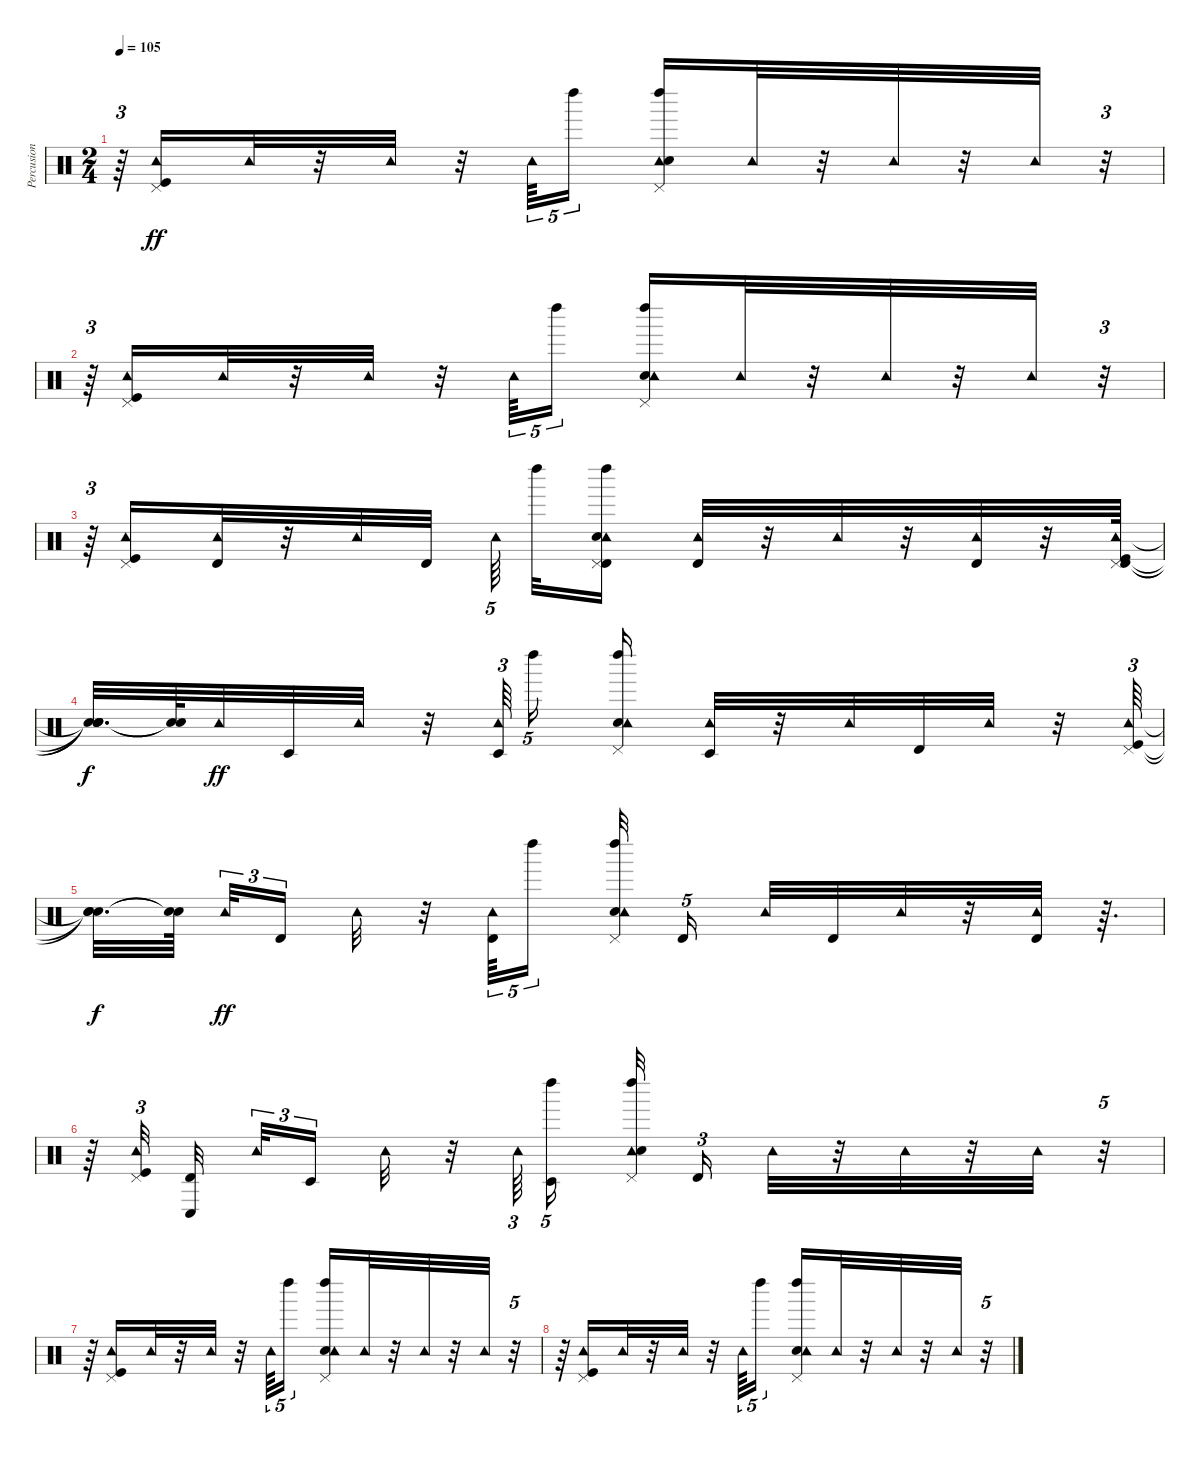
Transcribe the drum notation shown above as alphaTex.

\track ("Percusion" "Percusion") {instrument percussion}
\staff {score}
\articulation defaults
\ts (2 4)
\tempo 105
\clef neutral
\ks c
r.64{tu (3 2) dy ff} ("Pedal Hi-Hat (hit)" "Kick (hit)" "Tambourine (hit)").16 "Tambourine (hit)".32 r.32 "Tambourine (hit)".32 r.32 "Tambourine (hit)".64{tu (5 4)} "Left Maraca (hit)".16{tu (5 4)} ("Tambourine (hit)" "Electric Snare (hit)" "Pedal Hi-Hat (hit)" "Left Maraca (hit)").16 "Tambourine (hit)".32 r.32 "Tambourine (hit)".32 r.32 "Tambourine (hit)".32 r.32{tu (3 2)} |
r.64{tu (3 2)} ("Kick (hit)" "Tambourine (hit)" "Pedal Hi-Hat (hit)").16 "Tambourine (hit)".32 r.32 "Tambourine (hit)".32 r.32 "Tambourine (hit)".64{tu (5 4)} "Left Maraca (hit)".16{tu (5 4)} ("Pedal Hi-Hat (hit)" "Electric Snare (hit)" "Tambourine (hit)" "Left Maraca (hit)").16 "Tambourine (hit)".32 r.32 "Tambourine (hit)".32 r.32 "Tambourine (hit)".32 r.32{tu (3 2)} |
r.64{tu (3 2)} ("Kick (hit)" "Tambourine (hit)" "Pedal Hi-Hat (hit)").16 ("Tambourine (hit)" "Timbale high (hit)").32 r.32 "Tambourine (hit)".32 "Timbale high (hit)".32{beam splitsecondary} "Tambourine (hit)".64{tu (5 4) beam splitsecondary} "Left Maraca (hit)".32 ("Timbale high (hit)" "Tambourine (hit)" "Electric Snare (hit)" "Pedal Hi-Hat (hit)" "Left Maraca (hit)").16 ("Tambourine (hit)" "Timbale high (hit)").32 r.32 "Tambourine (hit)".32 r.32 ("Timbale high (hit)" "Tambourine (hit)").32 r.32 ("Pedal Hi-Hat (hit)" "Kick (hit)" "Tambourine (hit)" "Timbale high (hit)").64 |
("Snare (hit)"{t} "Snare (hit)"{t} "Snare (hit)"{t} "Snare (hit)"{t}).32{d dy f} ("Snare (hit)"{t} "Snare (hit)"{t}).64 "Tambourine (hit)".32{dy ff} "Timbale low (hit)".32 "Tambourine (hit)".32 r.32 ("Tambourine (hit)" "Timbale low (hit)").64{tu (3 2)} "Left Maraca (hit)".16{tu (5 4) beam splitsecondary} ("Pedal Hi-Hat (hit)" "Electric Snare (hit)" "Tambourine (hit)" "Left Maraca (hit)").16 ("Timbale low (hit)" "Tambourine (hit)").32 r.32 "Tambourine (hit)".32 "Timbale high (hit)".32 "Tambourine (hit)".32 r.32 ("Kick (hit)" "Tambourine (hit)" "Pedal Hi-Hat (hit)").64{tu (3 2)} |
("Snare (hit)"{t} "Snare (hit)"{t} "Snare (hit)"{t}).32{d dy f} ("Snare (hit)"{t} "Snare (hit)"{t}).64{beam splitsecondary} "Tambourine (hit)".32{tu (3 2) dy ff} "Timbale high (hit)".16{tu (3 2) beam splitsecondary} "Tambourine (hit)".32 r.32 ("Timbale high (hit)" "Tambourine (hit)").64{tu (5 4)} "Left Maraca (hit)".16{tu (5 4)} ("Electric Snare (hit)" "Tambourine (hit)" "Pedal Hi-Hat (hit)" "Left Maraca (hit)").32{beam splitsecondary} "Timbale high (hit)".16{tu (5 4) beam splitsecondary} "Tambourine (hit)".32 "Timbale high (hit)".32 "Tambourine (hit)".32 r.32 ("Tambourine (hit)" "Timbale high (hit)").32 r.64{d} |
r.64 ("Pedal Hi-Hat (hit)" "Tambourine (hit)" "Kick (hit)").32{tu (3 2) beam splitsecondary} ("Timbale high (hit)" "Conga low (hit)").32{beam splitsecondary} "Tambourine (hit)".32{tu (3 2)} "Timbale low (hit)".16{tu (3 2) beam splitsecondary} "Tambourine (hit)".32 r.32 "Tambourine (hit)".64{tu (3 2)} ("Timbale low (hit)" "Left Maraca (hit)").16{tu (5 4)} ("Pedal Hi-Hat (hit)" "Tambourine (hit)" "Electric Snare (hit)" "Left Maraca (hit)").32{beam splitsecondary} "Timbale high (hit)".16{tu (3 2)} "Tambourine (hit)".32 r.32 "Tambourine (hit)".32 r.32 "Tambourine (hit)".32 r.32{tu (5 4)} |
r.64 ("Kick (hit)" "Tambourine (hit)" "Pedal Hi-Hat (hit)").16 "Tambourine (hit)".32 r.32 "Tambourine (hit)".32 r.32 "Tambourine (hit)".64{tu (5 4)} "Left Maraca (hit)".16{tu (5 4)} ("Pedal Hi-Hat (hit)" "Electric Snare (hit)" "Tambourine (hit)" "Left Maraca (hit)").16 "Tambourine (hit)".32 r.32 "Tambourine (hit)".32 r.32 "Tambourine (hit)".32 r.32{tu (5 4)} |
r.64 ("Pedal Hi-Hat (hit)" "Kick (hit)" "Tambourine (hit)").16 "Tambourine (hit)".32 r.32 "Tambourine (hit)".32 r.32 "Tambourine (hit)".64{tu (5 4)} "Left Maraca (hit)".16{tu (5 4)} ("Electric Snare (hit)" "Tambourine (hit)" "Pedal Hi-Hat (hit)" "Left Maraca (hit)").16 "Tambourine (hit)".32 r.32 "Tambourine (hit)".32 r.32 "Tambourine (hit)".32 r.32{tu (5 4)}
